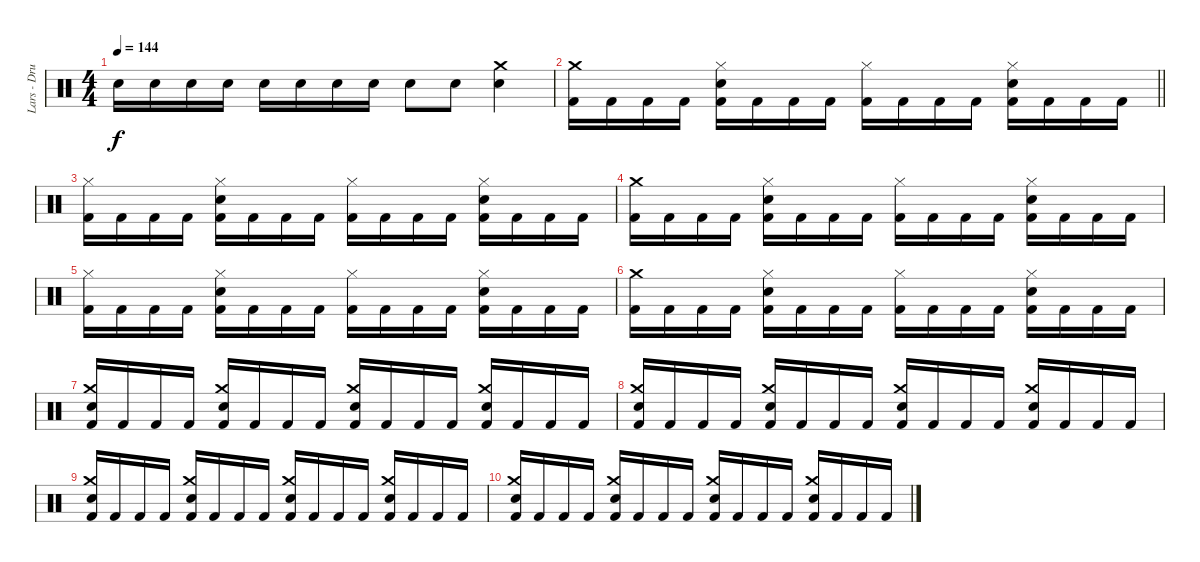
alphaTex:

\track ("Lars - Drums" "Lars - Dru") {instrument percussion}
\staff {score}
\articulation defaults
\ts (4 4)
\tempo 144
\clef neutral
\ks c "Snare (hit) 2".16{dy f} "Snare (hit) 2".16 "Snare (hit) 2".16 "Snare (hit) 2".16 "Snare (hit) 2".16 "Snare (hit) 2".16 "Snare (hit) 2".16 "Snare (hit) 2".16 "Snare (hit) 2".8 "Snare (hit) 2".8
("Crash medium (hit)" "Snare (hit) 2").4 |
\barLineRight lightlight
("Crash medium (hit)" "Kick (hit) 2").16 "Kick (hit) 2".16 "Kick (hit) 2".16 "Kick (hit) 2".16 ("Hi-Hat (closed)" "Snare (hit) 2" "Kick (hit) 2").16 "Kick (hit) 2".16 "Kick (hit) 2".16 "Kick (hit) 2".16 ("Hi-Hat (closed)" "Kick (hit) 2").16 "Kick (hit) 2".16 "Kick (hit) 2".16 "Kick (hit) 2".16 ("Hi-Hat (closed)" "Snare (hit) 2" "Kick (hit) 2").16 "Kick (hit) 2".16 "Kick (hit) 2".16 "Kick (hit) 2".16 |
("Hi-Hat (closed)" "Kick (hit) 2").16 "Kick (hit) 2".16 "Kick (hit) 2".16 "Kick (hit) 2".16 ("Hi-Hat (closed)" "Snare (hit) 2" "Kick (hit) 2").16 "Kick (hit) 2".16 "Kick (hit) 2".16 "Kick (hit) 2".16 ("Hi-Hat (closed)" "Kick (hit) 2").16 "Kick (hit) 2".16 "Kick (hit) 2".16 "Kick (hit) 2".16 ("Hi-Hat (closed)" "Snare (hit) 2" "Kick (hit) 2").16 "Kick (hit) 2".16 "Kick (hit) 2".16 "Kick (hit) 2".16 |
("Crash medium (hit)" "Kick (hit) 2").16 "Kick (hit) 2".16 "Kick (hit) 2".16 "Kick (hit) 2".16 ("Hi-Hat (closed)" "Snare (hit) 2" "Kick (hit) 2").16 "Kick (hit) 2".16 "Kick (hit) 2".16 "Kick (hit) 2".16 ("Hi-Hat (closed)" "Kick (hit) 2").16 "Kick (hit) 2".16 "Kick (hit) 2".16 "Kick (hit) 2".16 ("Hi-Hat (closed)" "Snare (hit) 2" "Kick (hit) 2").16 "Kick (hit) 2".16 "Kick (hit) 2".16 "Kick (hit) 2".16 |
("Hi-Hat (closed)" "Kick (hit) 2").16 "Kick (hit) 2".16 "Kick (hit) 2".16 "Kick (hit) 2".16 ("Hi-Hat (closed)" "Snare (hit) 2" "Kick (hit) 2").16 "Kick (hit) 2".16 "Kick (hit) 2".16 "Kick (hit) 2".16 ("Hi-Hat (closed)" "Kick (hit) 2").16 "Kick (hit) 2".16 "Kick (hit) 2".16 "Kick (hit) 2".16 ("Hi-Hat (closed)" "Snare (hit) 2" "Kick (hit) 2").16 "Kick (hit) 2".16 "Kick (hit) 2".16 "Kick (hit) 2".16 |
("Crash medium (hit)" "Kick (hit) 2").16 "Kick (hit) 2".16 "Kick (hit) 2".16 "Kick (hit) 2".16 ("Hi-Hat (closed)" "Snare (hit) 2" "Kick (hit) 2").16 "Kick (hit) 2".16 "Kick (hit) 2".16 "Kick (hit) 2".16 ("Hi-Hat (closed)" "Kick (hit) 2").16 "Kick (hit) 2".16 "Kick (hit) 2".16 "Kick (hit) 2".16 ("Hi-Hat (closed)" "Snare (hit) 2" "Kick (hit) 2").16 "Kick (hit) 2".16 "Kick (hit) 2".16 "Kick (hit) 2".16 |
("Crash medium (hit)" "Snare (hit) 2" "Kick (hit) 2").16 "Kick (hit) 2".16 "Kick (hit) 2".16 "Kick (hit) 2".16 ("Crash medium (hit)" "Snare (hit) 2" "Kick (hit) 2").16 "Kick (hit) 2".16 "Kick (hit) 2".16 "Kick (hit) 2".16 ("Crash medium (hit)" "Snare (hit) 2" "Kick (hit) 2").16 "Kick (hit) 2".16 "Kick (hit) 2".16 "Kick (hit) 2".16 ("Crash medium (hit)" "Snare (hit) 2" "Kick (hit) 2").16 "Kick (hit) 2".16 "Kick (hit) 2".16 "Kick (hit) 2".16 |
("Crash medium (hit)" "Snare (hit) 2" "Kick (hit) 2").16 "Kick (hit) 2".16 "Kick (hit) 2".16 "Kick (hit) 2".16 ("Crash medium (hit)" "Snare (hit) 2" "Kick (hit) 2").16 "Kick (hit) 2".16 "Kick (hit) 2".16 "Kick (hit) 2".16 ("Crash medium (hit)" "Snare (hit) 2" "Kick (hit) 2").16 "Kick (hit) 2".16 "Kick (hit) 2".16 "Kick (hit) 2".16 ("Crash medium (hit)" "Snare (hit) 2" "Kick (hit) 2").16 "Kick (hit) 2".16 "Kick (hit) 2".16 "Kick (hit) 2".16 |
("Crash medium (hit)" "Snare (hit) 2" "Kick (hit) 2").16 "Kick (hit) 2".16 "Kick (hit) 2".16 "Kick (hit) 2".16 ("Crash medium (hit)" "Snare (hit) 2" "Kick (hit) 2").16 "Kick (hit) 2".16 "Kick (hit) 2".16 "Kick (hit) 2".16 ("Crash medium (hit)" "Snare (hit) 2" "Kick (hit) 2").16 "Kick (hit) 2".16 "Kick (hit) 2".16 "Kick (hit) 2".16 ("Crash medium (hit)" "Snare (hit) 2" "Kick (hit) 2").16 "Kick (hit) 2".16 "Kick (hit) 2".16 "Kick (hit) 2".16 |
("Crash medium (hit)" "Snare (hit) 2" "Kick (hit) 2").16 "Kick (hit) 2".16 "Kick (hit) 2".16 "Kick (hit) 2".16 ("Crash medium (hit)" "Snare (hit) 2" "Kick (hit) 2").16 "Kick (hit) 2".16 "Kick (hit) 2".16 "Kick (hit) 2".16 ("Crash medium (hit)" "Snare (hit) 2" "Kick (hit) 2").16 "Kick (hit) 2".16 "Kick (hit) 2".16 "Kick (hit) 2".16 ("Crash medium (hit)" "Snare (hit) 2" "Kick (hit) 2").16 "Kick (hit) 2".16 "Kick (hit) 2".16 "Kick (hit) 2".16
